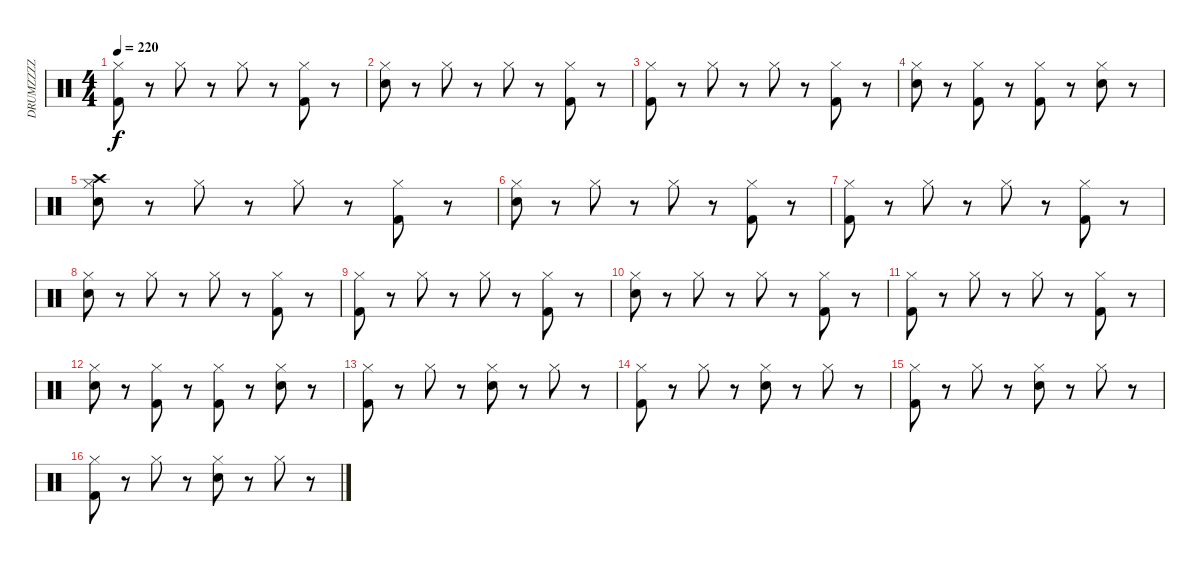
\track ("DRUMZZZZ" "DRUMZZZZ") {instrument percussion}
\staff {score}
\articulation defaults
\ts (4 4)
\tempo 220
\clef neutral
\ks c
("Hi-Hat (closed)" "Kick (hit) 2").8{dy f} r.8 "Hi-Hat (closed)".8 r.8 "Hi-Hat (closed)".8 r.8 ("Hi-Hat (closed)" "Kick (hit) 2").8 r.8 |
("Hi-Hat (closed)" "Snare (hit) 2").8 r.8 "Hi-Hat (closed)".8 r.8 "Hi-Hat (closed)".8 r.8 ("Hi-Hat (closed)" "Kick (hit) 2").8 r.8 |
("Hi-Hat (closed)" "Kick (hit) 2").8 r.8 "Hi-Hat (closed)".8 r.8 "Hi-Hat (closed)".8 r.8 ("Hi-Hat (closed)" "Kick (hit) 2").8 r.8 |
("Hi-Hat (closed)" "Snare (hit) 2").8 r.8 ("Hi-Hat (closed)" "Kick (hit) 2").8 r.8 ("Hi-Hat (closed)" "Kick (hit) 2").8 r.8 ("Hi-Hat (closed)" "Snare (hit) 2").8 r.8 |
("Crash high (hit)" "Hi-Hat (closed)" "Snare (hit) 2").8 r.8 "Hi-Hat (closed)".8 r.8 "Hi-Hat (closed)".8 r.8 ("Hi-Hat (closed)" "Kick (hit) 2").8 r.8 |
("Hi-Hat (closed)" "Snare (hit) 2").8 r.8 "Hi-Hat (closed)".8 r.8 "Hi-Hat (closed)".8 r.8 ("Hi-Hat (closed)" "Kick (hit) 2").8 r.8 |
("Hi-Hat (closed)" "Kick (hit) 2").8 r.8 "Hi-Hat (closed)".8 r.8 "Hi-Hat (closed)".8 r.8 ("Hi-Hat (closed)" "Kick (hit) 2").8 r.8 |
("Hi-Hat (closed)" "Snare (hit) 2").8 r.8 "Hi-Hat (closed)".8 r.8 "Hi-Hat (closed)".8 r.8 ("Hi-Hat (closed)" "Kick (hit) 2").8 r.8 |
("Hi-Hat (closed)" "Kick (hit) 2").8 r.8 "Hi-Hat (closed)".8 r.8 "Hi-Hat (closed)".8 r.8 ("Hi-Hat (closed)" "Kick (hit) 2").8 r.8 |
("Hi-Hat (closed)" "Snare (hit) 2").8 r.8 "Hi-Hat (closed)".8 r.8 "Hi-Hat (closed)".8 r.8 ("Hi-Hat (closed)" "Kick (hit) 2").8 r.8 |
("Hi-Hat (closed)" "Kick (hit) 2").8 r.8 "Hi-Hat (closed)".8 r.8 "Hi-Hat (closed)".8 r.8 ("Hi-Hat (closed)" "Kick (hit) 2").8 r.8 |
("Hi-Hat (closed)" "Snare (hit) 2").8 r.8 ("Hi-Hat (closed)" "Kick (hit) 2").8 r.8 ("Hi-Hat (closed)" "Kick (hit) 2").8 r.8 ("Hi-Hat (closed)" "Snare (hit) 2").8 r.8 |
("Hi-Hat (closed)" "Kick (hit) 2").8 r.8 "Hi-Hat (closed)".8 r.8 ("Hi-Hat (closed)" "Snare (hit) 2").8 r.8 "Hi-Hat (closed)".8 r.8 |
("Hi-Hat (closed)" "Kick (hit) 2").8 r.8 "Hi-Hat (closed)".8 r.8 ("Hi-Hat (closed)" "Snare (hit) 2").8 r.8 "Hi-Hat (closed)".8 r.8 |
("Hi-Hat (closed)" "Kick (hit) 2").8 r.8 "Hi-Hat (closed)".8 r.8 ("Hi-Hat (closed)" "Snare (hit) 2").8 r.8 "Hi-Hat (closed)".8 r.8 |
("Hi-Hat (closed)" "Kick (hit) 2").8 r.8 "Hi-Hat (closed)".8 r.8 ("Hi-Hat (closed)" "Snare (hit) 2").8 r.8 "Hi-Hat (closed)".8 r.8
